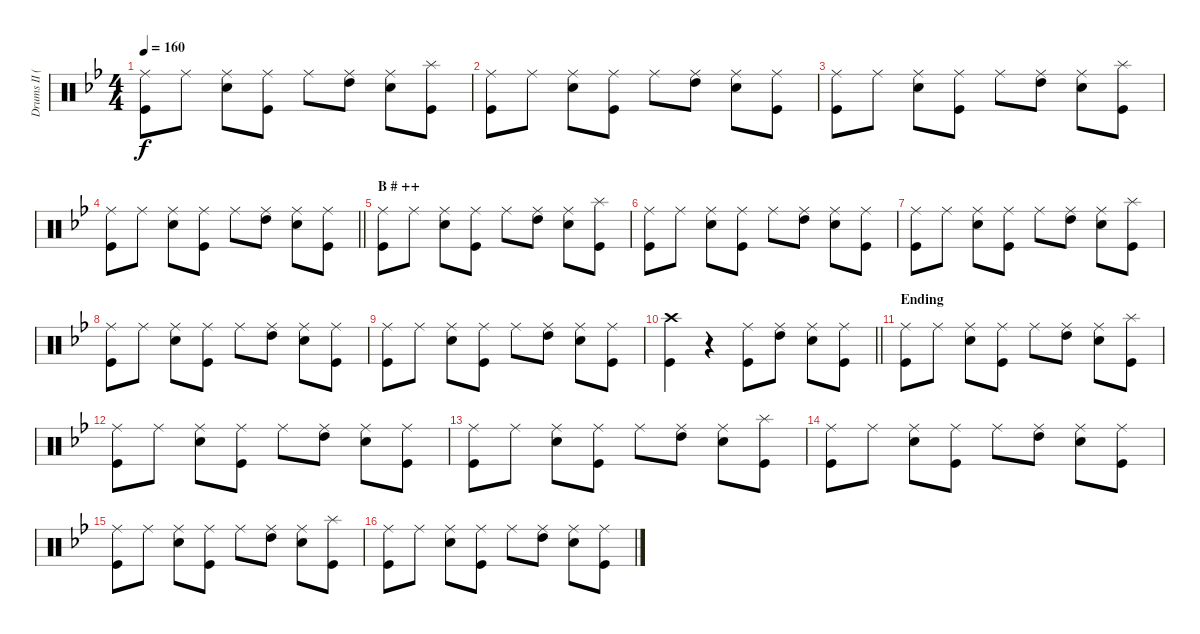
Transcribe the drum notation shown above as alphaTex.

\track ("Drums II (Tainaka Ritsu)" "Drums II (") {instrument percussion}
\staff {score}
\articulation defaults
\ts (4 4)
\tempo 160
\clef neutral
\ks bb
("Ride (middle)" "Kick (hit)").8{dy f} "Ride (middle)".8 ("Ride (middle)" "Snare (hit) 2").8 ("Ride (middle)" "Kick (hit)").8 "Ride (middle)".8 ("Ride (middle)" "High Tom (hit)").8 ("Ride (middle)" "Snare (hit) 2").8 ("Splash (hit)" "Kick (hit)").8 |
("Ride (middle)" "Kick (hit)").8 "Ride (middle)".8 ("Ride (middle)" "Snare (hit) 2").8 ("Ride (middle)" "Kick (hit)").8 "Ride (middle)".8 ("Ride (middle)" "High Tom (hit)").8 ("Ride (middle)" "Snare (hit) 2").8 ("Ride (middle)" "Kick (hit)").8 |
("Ride (middle)" "Kick (hit)").8 "Ride (middle)".8 ("Ride (middle)" "Snare (hit) 2").8 ("Ride (middle)" "Kick (hit)").8 "Ride (middle)".8 ("Ride (middle)" "High Tom (hit)").8 ("Ride (middle)" "Snare (hit) 2").8 ("Splash (hit)" "Kick (hit)").8 |
\barLineRight lightlight
("Ride (middle)" "Kick (hit)").8 "Ride (middle)".8 ("Ride (middle)" "Snare (hit) 2").8 ("Ride (middle)" "Kick (hit)").8 "Ride (middle)".8 ("Ride (middle)" "High Tom (hit)").8 ("Ride (middle)" "Snare (hit) 2").8 ("Ride (middle)" "Kick (hit)").8 |
\section ("" "B # ++")
("Ride (middle)" "Kick (hit)").8 "Ride (middle)".8 ("Ride (middle)" "Snare (hit) 2").8 ("Ride (middle)" "Kick (hit)").8 "Ride (middle)".8 ("Ride (middle)" "High Tom (hit)").8 ("Ride (middle)" "Snare (hit) 2").8 ("Splash (hit)" "Kick (hit)").8 |
("Ride (middle)" "Kick (hit)").8 "Ride (middle)".8 ("Ride (middle)" "Snare (hit) 2").8 ("Ride (middle)" "Kick (hit)").8 "Ride (middle)".8 ("Ride (middle)" "High Tom (hit)").8 ("Ride (middle)" "Snare (hit) 2").8 ("Ride (middle)" "Kick (hit)").8 |
("Ride (middle)" "Kick (hit)").8 "Ride (middle)".8 ("Ride (middle)" "Snare (hit) 2").8 ("Ride (middle)" "Kick (hit)").8 "Ride (middle)".8 ("Ride (middle)" "High Tom (hit)").8 ("Ride (middle)" "Snare (hit) 2").8 ("Splash (hit)" "Kick (hit)").8 |
("Ride (middle)" "Kick (hit)").8 "Ride (middle)".8 ("Ride (middle)" "Snare (hit) 2").8 ("Ride (middle)" "Kick (hit)").8 "Ride (middle)".8 ("Ride (middle)" "High Tom (hit)").8 ("Ride (middle)" "Snare (hit) 2").8 ("Ride (middle)" "Kick (hit)").8 |
("Ride (middle)" "Kick (hit)").8 "Ride (middle)".8 ("Ride (middle)" "Snare (hit) 2").8 ("Ride (middle)" "Kick (hit)").8 "Ride (middle)".8 ("Ride (middle)" "High Tom (hit)").8 ("Ride (middle)" "Snare (hit) 2").8 ("Ride (middle)" "Kick (hit)").8 |
\barLineRight lightlight
("Crash high (hit)" "Kick (hit)").4 r.4 ("Ride (middle)" "Kick (hit)").8 ("Ride (middle)" "High Tom (hit)").8 ("Ride (middle)" "Snare (hit) 2").8 ("Ride (middle)" "Kick (hit)").8 |
\section ("" "Ending")
("Ride (middle)" "Kick (hit)").8 "Ride (middle)".8 ("Ride (middle)" "Snare (hit) 2").8 ("Ride (middle)" "Kick (hit)").8 "Ride (middle)".8 ("Ride (middle)" "High Tom (hit)").8 ("Ride (middle)" "Snare (hit) 2").8 ("Splash (hit)" "Kick (hit)").8 |
("Ride (middle)" "Kick (hit)").8 "Ride (middle)".8 ("Ride (middle)" "Snare (hit) 2").8 ("Ride (middle)" "Kick (hit)").8 "Ride (middle)".8 ("Ride (middle)" "High Tom (hit)").8 ("Ride (middle)" "Snare (hit) 2").8 ("Ride (middle)" "Kick (hit)").8 |
("Ride (middle)" "Kick (hit)").8 "Ride (middle)".8 ("Ride (middle)" "Snare (hit) 2").8 ("Ride (middle)" "Kick (hit)").8 "Ride (middle)".8 ("Ride (middle)" "High Tom (hit)").8 ("Ride (middle)" "Snare (hit) 2").8 ("Splash (hit)" "Kick (hit)").8 |
("Ride (middle)" "Kick (hit)").8 "Ride (middle)".8 ("Ride (middle)" "Snare (hit) 2").8 ("Ride (middle)" "Kick (hit)").8 "Ride (middle)".8 ("Ride (middle)" "High Tom (hit)").8 ("Ride (middle)" "Snare (hit) 2").8 ("Ride (middle)" "Kick (hit)").8 |
("Ride (middle)" "Kick (hit)").8 "Ride (middle)".8 ("Ride (middle)" "Snare (hit) 2").8 ("Ride (middle)" "Kick (hit)").8 "Ride (middle)".8 ("Ride (middle)" "High Tom (hit)").8 ("Ride (middle)" "Snare (hit) 2").8 ("Splash (hit)" "Kick (hit)").8 |
("Ride (middle)" "Kick (hit)").8 "Ride (middle)".8 ("Ride (middle)" "Snare (hit) 2").8 ("Ride (middle)" "Kick (hit)").8 "Ride (middle)".8 ("Ride (middle)" "High Tom (hit)").8 ("Ride (middle)" "Snare (hit) 2").8 ("Ride (middle)" "Kick (hit)").8
